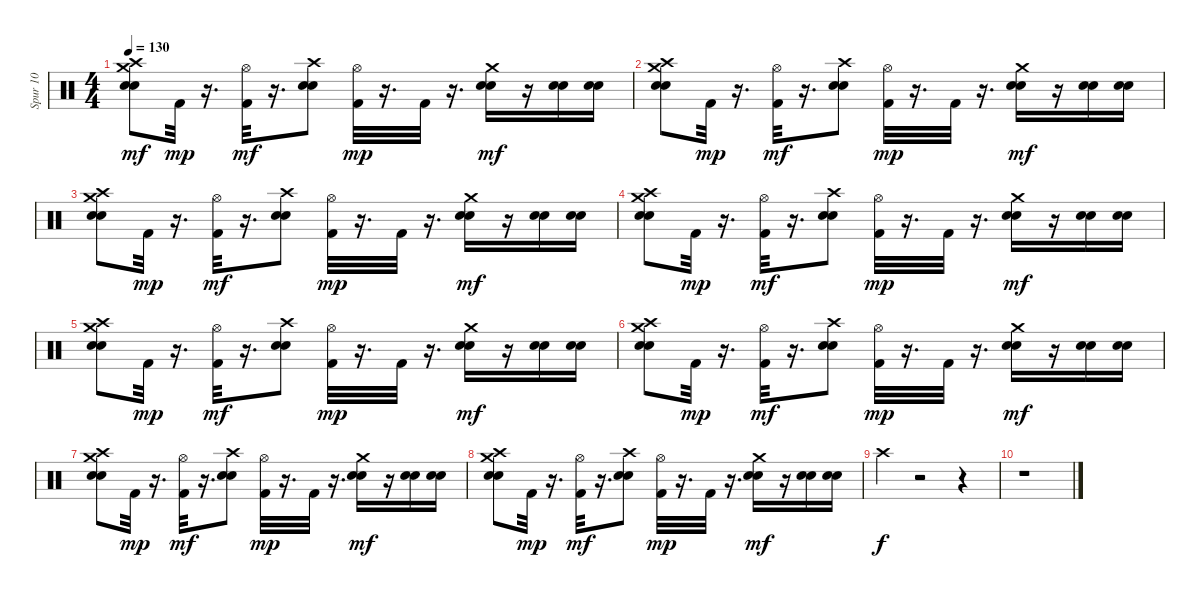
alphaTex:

\track ("Spur 10" "Spur 10") {instrument percussion}
\staff {score}
\articulation defaults
\ts (4 4)
\tempo 130
\clef neutral
\ks c
("Crash high (hit)" "Electric Snare (hit)" "Snare (hit) 2" "Crash medium (hit)").8{dy mf} "Kick (hit) 2".32{dy mp} r.16{d} ("Kick (hit) 2" "Hi-Hat (open)").32{dy mf} r.16{d} ("Electric Snare (hit)" "Snare (hit) 2" "Crash high (hit)").8 ("Kick (hit) 2" "Hi-Hat (open)").32{dy mp} r.16{d} "Kick (hit) 2".32 r.16{d} ("Electric Snare (hit)" "Snare (hit) 2" "Crash medium (hit)").16{dy mf} r.16 ("Electric Snare (hit)" "Snare (hit) 2").16 ("Electric Snare (hit)" "Snare (hit) 2").16 |
("Crash high (hit)" "Electric Snare (hit)" "Snare (hit) 2" "Crash medium (hit)").8 "Kick (hit) 2".32{dy mp} r.16{d} ("Kick (hit) 2" "Hi-Hat (open)").32{dy mf} r.16{d} ("Electric Snare (hit)" "Snare (hit) 2" "Crash high (hit)").8 ("Kick (hit) 2" "Hi-Hat (open)").32{dy mp} r.16{d} "Kick (hit) 2".32 r.16{d} ("Electric Snare (hit)" "Snare (hit) 2" "Crash medium (hit)").16{dy mf} r.16 ("Electric Snare (hit)" "Snare (hit) 2").16 ("Electric Snare (hit)" "Snare (hit) 2").16 |
("Crash high (hit)" "Electric Snare (hit)" "Snare (hit) 2" "Crash medium (hit)").8 "Kick (hit) 2".32{dy mp} r.16{d} ("Kick (hit) 2" "Hi-Hat (open)").32{dy mf} r.16{d} ("Electric Snare (hit)" "Snare (hit) 2" "Crash high (hit)").8 ("Kick (hit) 2" "Hi-Hat (open)").32{dy mp} r.16{d} "Kick (hit) 2".32 r.16{d} ("Electric Snare (hit)" "Snare (hit) 2" "Crash medium (hit)").16{dy mf} r.16 ("Electric Snare (hit)" "Snare (hit) 2").16 ("Electric Snare (hit)" "Snare (hit) 2").16 |
("Crash high (hit)" "Electric Snare (hit)" "Snare (hit) 2" "Crash medium (hit)").8 "Kick (hit) 2".32{dy mp} r.16{d} ("Kick (hit) 2" "Hi-Hat (open)").32{dy mf} r.16{d} ("Electric Snare (hit)" "Snare (hit) 2" "Crash high (hit)").8 ("Kick (hit) 2" "Hi-Hat (open)").32{dy mp} r.16{d} "Kick (hit) 2".32 r.16{d} ("Electric Snare (hit)" "Snare (hit) 2" "Crash medium (hit)").16{dy mf} r.16 ("Electric Snare (hit)" "Snare (hit) 2").16 ("Electric Snare (hit)" "Snare (hit) 2").16 |
("Crash high (hit)" "Electric Snare (hit)" "Snare (hit) 2" "Crash medium (hit)").8 "Kick (hit) 2".32{dy mp} r.16{d} ("Kick (hit) 2" "Hi-Hat (open)").32{dy mf} r.16{d} ("Electric Snare (hit)" "Snare (hit) 2" "Crash high (hit)").8 ("Kick (hit) 2" "Hi-Hat (open)").32{dy mp} r.16{d} "Kick (hit) 2".32 r.16{d} ("Electric Snare (hit)" "Snare (hit) 2" "Crash medium (hit)").16{dy mf} r.16 ("Electric Snare (hit)" "Snare (hit) 2").16 ("Electric Snare (hit)" "Snare (hit) 2").16 |
("Crash high (hit)" "Electric Snare (hit)" "Snare (hit) 2" "Crash medium (hit)").8 "Kick (hit) 2".32{dy mp} r.16{d} ("Kick (hit) 2" "Hi-Hat (open)").32{dy mf} r.16{d} ("Electric Snare (hit)" "Snare (hit) 2" "Crash high (hit)").8 ("Kick (hit) 2" "Hi-Hat (open)").32{dy mp} r.16{d} "Kick (hit) 2".32 r.16{d} ("Electric Snare (hit)" "Snare (hit) 2" "Crash medium (hit)").16{dy mf} r.16 ("Electric Snare (hit)" "Snare (hit) 2").16 ("Electric Snare (hit)" "Snare (hit) 2").16 |
("Crash high (hit)" "Electric Snare (hit)" "Snare (hit) 2" "Crash medium (hit)").8 "Kick (hit) 2".32{dy mp} r.16{d} ("Kick (hit) 2" "Hi-Hat (open)").32{dy mf} r.16{d} ("Electric Snare (hit)" "Snare (hit) 2" "Crash high (hit)").8 ("Kick (hit) 2" "Hi-Hat (open)").32{dy mp} r.16{d} "Kick (hit) 2".32 r.16{d} ("Electric Snare (hit)" "Snare (hit) 2" "Crash medium (hit)").16{dy mf} r.16 ("Electric Snare (hit)" "Snare (hit) 2").16 ("Electric Snare (hit)" "Snare (hit) 2").16 |
("Crash high (hit)" "Electric Snare (hit)" "Snare (hit) 2" "Crash medium (hit)").8 "Kick (hit) 2".32{dy mp} r.16{d} ("Kick (hit) 2" "Hi-Hat (open)").32{dy mf} r.16{d} ("Electric Snare (hit)" "Snare (hit) 2" "Crash high (hit)").8 ("Kick (hit) 2" "Hi-Hat (open)").32{dy mp} r.16{d} "Kick (hit) 2".32 r.16{d} ("Electric Snare (hit)" "Snare (hit) 2" "Crash medium (hit)").16{dy mf} r.16 ("Electric Snare (hit)" "Snare (hit) 2").16 ("Electric Snare (hit)" "Snare (hit) 2").16 |
"Crash high (hit)".4{dy f} r.2 r.4 |
r.1
